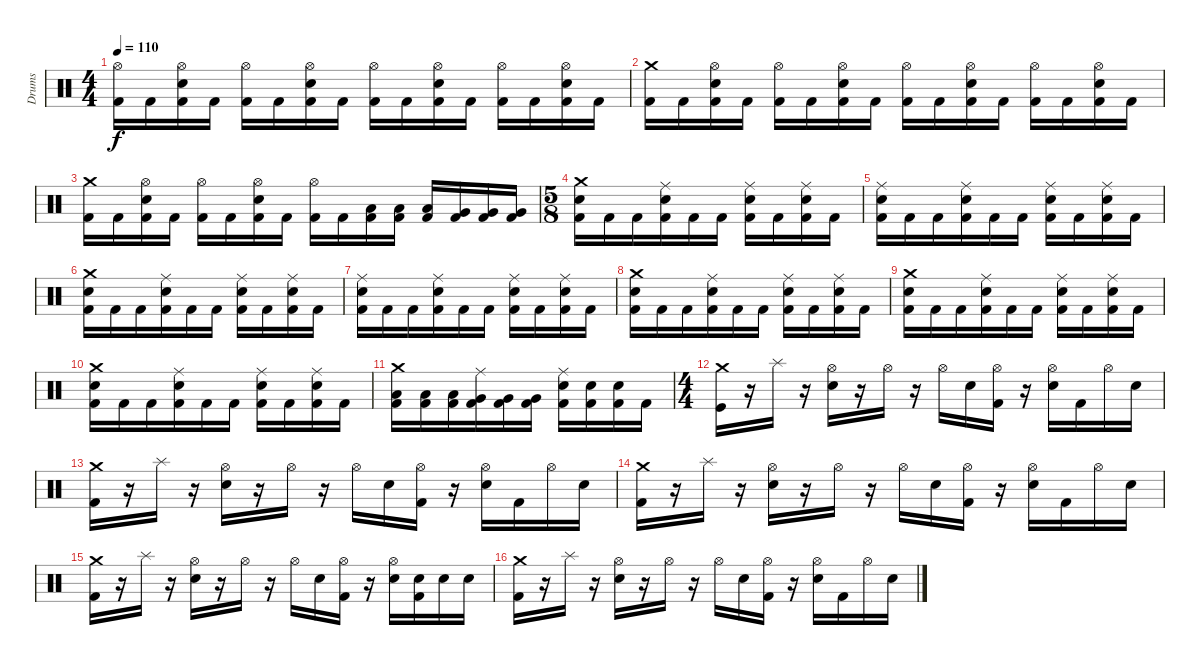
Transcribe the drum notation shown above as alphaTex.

\track ("Drums" "Drums") {instrument percussion}
\staff {score}
\articulation defaults
\ts (4 4)
\tempo 110
\clef neutral
\ks c
("Hi-Hat (open)" "Kick (hit) 2").16{dy f} "Kick (hit) 2".16 ("Hi-Hat (open)" "Electric Snare (hit)" "Kick (hit) 2").16 "Kick (hit) 2".16 ("Hi-Hat (open)" "Kick (hit) 2").16 "Kick (hit) 2".16 ("Hi-Hat (open)" "Electric Snare (hit)" "Kick (hit) 2").16 "Kick (hit) 2".16 ("Hi-Hat (open)" "Kick (hit) 2").16 "Kick (hit) 2".16 ("Hi-Hat (open)" "Electric Snare (hit)" "Kick (hit) 2").16 "Kick (hit) 2".16 ("Hi-Hat (open)" "Kick (hit) 2").16 "Kick (hit) 2".16 ("Hi-Hat (open)" "Electric Snare (hit)" "Kick (hit) 2").16 "Kick (hit) 2".16 |
("Crash medium (hit)" "Kick (hit) 2").16 "Kick (hit) 2".16 ("Hi-Hat (open)" "Electric Snare (hit)" "Kick (hit) 2").16 "Kick (hit) 2".16 ("Hi-Hat (open)" "Kick (hit) 2").16 "Kick (hit) 2".16 ("Hi-Hat (open)" "Electric Snare (hit)" "Kick (hit) 2").16 "Kick (hit) 2".16 ("Hi-Hat (open)" "Kick (hit) 2").16 "Kick (hit) 2".16 ("Hi-Hat (open)" "Electric Snare (hit)" "Kick (hit) 2").16 "Kick (hit) 2".16 ("Hi-Hat (open)" "Kick (hit) 2").16 "Kick (hit) 2".16 ("Hi-Hat (open)" "Electric Snare (hit)" "Kick (hit) 2").16 "Kick (hit) 2".16 |
("Crash medium (hit)" "Kick (hit) 2").16 "Kick (hit) 2".16 ("Hi-Hat (open)" "Electric Snare (hit)" "Kick (hit) 2").16 "Kick (hit) 2".16 ("Hi-Hat (open)" "Kick (hit) 2").16 "Kick (hit) 2".16 ("Hi-Hat (open)" "Electric Snare (hit)" "Kick (hit) 2").16 "Kick (hit) 2".16 ("Hi-Hat (open)" "Kick (hit) 2").16 "Kick (hit) 2".16 ("Low Tom (hit)" "Kick (hit) 2").16 ("Low Tom (hit)" "Kick (hit) 2").16 ("Low Tom (hit)" "Kick (hit) 2").16 ("Very Low Tom (hit)" "Kick (hit) 2").16 ("Very Low Tom (hit)" "Kick (hit) 2").16 ("Very Low Tom (hit)" "Kick (hit) 2").16 |
\ts (5 8)
("Crash medium (hit)" "Electric Snare (hit)" "Kick (hit) 2").16 "Kick (hit) 2".16 "Kick (hit) 2".16 ("Ride (middle)" "Electric Snare (hit)" "Kick (hit) 2").16 "Kick (hit) 2".16 "Kick (hit) 2".16 ("Ride (middle)" "Electric Snare (hit)" "Kick (hit) 2").16 "Kick (hit) 2".16 ("Ride (middle)" "Electric Snare (hit)" "Kick (hit) 2").16 "Kick (hit) 2".16 |
("Ride (middle)" "Electric Snare (hit)" "Kick (hit) 2").16 "Kick (hit) 2".16 "Kick (hit) 2".16 ("Ride (middle)" "Electric Snare (hit)" "Kick (hit) 2").16 "Kick (hit) 2".16 "Kick (hit) 2".16 ("Ride (middle)" "Electric Snare (hit)" "Kick (hit) 2").16 "Kick (hit) 2".16 ("Ride (middle)" "Electric Snare (hit)" "Kick (hit) 2").16 "Kick (hit) 2".16 |
("Crash medium (hit)" "Electric Snare (hit)" "Kick (hit) 2").16 "Kick (hit) 2".16 "Kick (hit) 2".16 ("Ride (middle)" "Electric Snare (hit)" "Kick (hit) 2").16 "Kick (hit) 2".16 "Kick (hit) 2".16 ("Ride (middle)" "Electric Snare (hit)" "Kick (hit) 2").16 "Kick (hit) 2".16 ("Ride (middle)" "Electric Snare (hit)" "Kick (hit) 2").16 "Kick (hit) 2".16 |
("Ride (middle)" "Electric Snare (hit)" "Kick (hit) 2").16 "Kick (hit) 2".16 "Kick (hit) 2".16 ("Ride (middle)" "Electric Snare (hit)" "Kick (hit) 2").16 "Kick (hit) 2".16 "Kick (hit) 2".16 ("Ride (middle)" "Electric Snare (hit)" "Kick (hit) 2").16 "Kick (hit) 2".16 ("Ride (middle)" "Electric Snare (hit)" "Kick (hit) 2").16 "Kick (hit) 2".16 |
("Crash medium (hit)" "Electric Snare (hit)" "Kick (hit) 2").16 "Kick (hit) 2".16 "Kick (hit) 2".16 ("Ride (middle)" "Electric Snare (hit)" "Kick (hit) 2").16 "Kick (hit) 2".16 "Kick (hit) 2".16 ("Ride (middle)" "Electric Snare (hit)" "Kick (hit) 2").16 "Kick (hit) 2".16 ("Ride (middle)" "Electric Snare (hit)" "Kick (hit) 2").16 "Kick (hit) 2".16 |
("Crash medium (hit)" "Electric Snare (hit)" "Kick (hit) 2").16 "Kick (hit) 2".16 "Kick (hit) 2".16 ("Ride (middle)" "Electric Snare (hit)" "Kick (hit) 2").16 "Kick (hit) 2".16 "Kick (hit) 2".16 ("Ride (middle)" "Electric Snare (hit)" "Kick (hit) 2").16 "Kick (hit) 2".16 ("Ride (middle)" "Electric Snare (hit)" "Kick (hit) 2").16 "Kick (hit) 2".16 |
("Crash medium (hit)" "Electric Snare (hit)" "Kick (hit) 2").16 "Kick (hit) 2".16 "Kick (hit) 2".16 ("Ride (middle)" "Electric Snare (hit)" "Kick (hit) 2").16 "Kick (hit) 2".16 "Kick (hit) 2".16 ("Ride (middle)" "Electric Snare (hit)" "Kick (hit) 2").16 "Kick (hit) 2".16 ("Ride (middle)" "Electric Snare (hit)" "Kick (hit) 2").16 "Kick (hit) 2".16 |
("Crash medium (hit)" "Low Tom (hit)" "Kick (hit) 2").16 ("Low Tom (hit)" "Kick (hit) 2").16 ("Low Tom (hit)" "Kick (hit) 2").16 ("Ride (middle)" "Very Low Tom (hit)" "Kick (hit) 2").16 ("Very Low Tom (hit)" "Kick (hit) 2").16 ("Very Low Tom (hit)" "Kick (hit) 2").16 ("Ride (middle)" "Electric Snare (hit)" "Kick (hit) 2").16 ("Electric Snare (hit)" "Kick (hit) 2").16 ("Electric Snare (hit)" "Kick (hit) 2").16 "Kick (hit) 2".16 |
\ts (4 4)
("Crash medium (hit)" "Kick (hit)").16 r.16 "Splash (hit)".16 r.16 ("Hi-Hat (open)" "Electric Snare (hit)").16 r.16 "Hi-Hat (open)".16 r.16 "Hi-Hat (open)".16 "Electric Snare (hit)".16 ("Hi-Hat (open)" "Kick (hit) 2").16 r.16 ("Hi-Hat (open)" "Electric Snare (hit)").16 "Kick (hit) 2".16 "Hi-Hat (open)".16 "Electric Snare (hit)".16 |
("Crash medium (hit)" "Kick (hit) 2").16 r.16 "Splash (hit)".16 r.16 ("Hi-Hat (open)" "Electric Snare (hit)").16 r.16 "Hi-Hat (open)".16 r.16 "Hi-Hat (open)".16 "Electric Snare (hit)".16 ("Hi-Hat (open)" "Kick (hit) 2").16 r.16 ("Hi-Hat (open)" "Electric Snare (hit)").16 "Kick (hit) 2".16 "Hi-Hat (open)".16 "Electric Snare (hit)".16 |
("Crash medium (hit)" "Kick (hit) 2").16 r.16 "Splash (hit)".16 r.16 ("Hi-Hat (open)" "Electric Snare (hit)").16 r.16 "Hi-Hat (open)".16 r.16 "Hi-Hat (open)".16 "Electric Snare (hit)".16 ("Hi-Hat (open)" "Kick (hit) 2").16 r.16 ("Hi-Hat (open)" "Electric Snare (hit)").16 "Kick (hit) 2".16 "Hi-Hat (open)".16 "Electric Snare (hit)".16 |
("Crash medium (hit)" "Kick (hit) 2").16 r.16 "Splash (hit)".16 r.16 ("Hi-Hat (open)" "Electric Snare (hit)").16 r.16 "Hi-Hat (open)".16 r.16 "Hi-Hat (open)".16 "Electric Snare (hit)".16 ("Hi-Hat (open)" "Kick (hit) 2").16 r.16 ("Hi-Hat (open)" "Electric Snare (hit)").16 ("Electric Snare (hit)" "Kick (hit) 2").16 "Electric Snare (hit)".16 "Electric Snare (hit)".16 |
("Crash medium (hit)" "Kick (hit) 2").16 r.16 "Splash (hit)".16 r.16 ("Hi-Hat (open)" "Electric Snare (hit)").16 r.16 "Hi-Hat (open)".16 r.16 "Hi-Hat (open)".16 "Electric Snare (hit)".16 ("Hi-Hat (open)" "Kick (hit) 2").16 r.16 ("Hi-Hat (open)" "Electric Snare (hit)").16 "Kick (hit) 2".16 "Hi-Hat (open)".16 "Electric Snare (hit)".16
